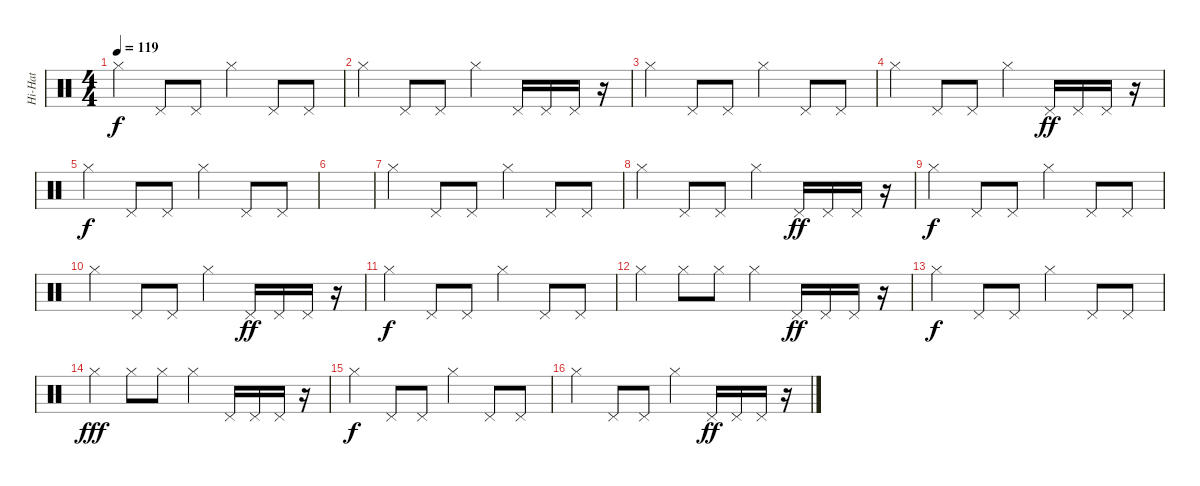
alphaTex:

\track ("Hi-Hat" "Hi-Hat") {instrument percussion}
\staff {score}
\articulation defaults
\ts (4 4)
\tempo 119
\clef neutral
\ks c "Hi-Hat (closed)".4{dy f} "Pedal Hi-Hat (hit)".8 "Pedal Hi-Hat (hit)".8 "Hi-Hat (closed)".4 "Pedal Hi-Hat (hit)".8 "Pedal Hi-Hat (hit)".8
|
"Hi-Hat (closed)".4 "Pedal Hi-Hat (hit)".8 "Pedal Hi-Hat (hit)".8 "Hi-Hat (closed)".4 "Pedal Hi-Hat (hit)".16 "Pedal Hi-Hat (hit)".16 "Pedal Hi-Hat (hit)".16 r.16 |
"Hi-Hat (closed)".4 "Pedal Hi-Hat (hit)".8 "Pedal Hi-Hat (hit)".8 "Hi-Hat (closed)".4 "Pedal Hi-Hat (hit)".8 "Pedal Hi-Hat (hit)".8 |
"Hi-Hat (closed)".4 "Pedal Hi-Hat (hit)".8 "Pedal Hi-Hat (hit)".8 "Hi-Hat (closed)".4 "Pedal Hi-Hat (hit)".16{dy ff} "Pedal Hi-Hat (hit)".16 "Pedal Hi-Hat (hit)".16 r.16 |
"Hi-Hat (closed)".4{dy f} "Pedal Hi-Hat (hit)".8 "Pedal Hi-Hat (hit)".8 "Hi-Hat (closed)".4 "Pedal Hi-Hat (hit)".8 "Pedal Hi-Hat (hit)".8 |
|
"Hi-Hat (closed)".4 "Pedal Hi-Hat (hit)".8 "Pedal Hi-Hat (hit)".8 "Hi-Hat (closed)".4 "Pedal Hi-Hat (hit)".8 "Pedal Hi-Hat (hit)".8 |
"Hi-Hat (closed)".4 "Pedal Hi-Hat (hit)".8 "Pedal Hi-Hat (hit)".8 "Hi-Hat (closed)".4 "Pedal Hi-Hat (hit)".16{dy ff} "Pedal Hi-Hat (hit)".16 "Pedal Hi-Hat (hit)".16 r.16 |
"Hi-Hat (closed)".4{dy f} "Pedal Hi-Hat (hit)".8 "Pedal Hi-Hat (hit)".8 "Hi-Hat (closed)".4 "Pedal Hi-Hat (hit)".8 "Pedal Hi-Hat (hit)".8 |
"Hi-Hat (closed)".4 "Pedal Hi-Hat (hit)".8 "Pedal Hi-Hat (hit)".8 "Hi-Hat (closed)".4 "Pedal Hi-Hat (hit)".16{dy ff} "Pedal Hi-Hat (hit)".16 "Pedal Hi-Hat (hit)".16 r.16 |
"Hi-Hat (closed)".4{dy f} "Pedal Hi-Hat (hit)".8 "Pedal Hi-Hat (hit)".8 "Hi-Hat (closed)".4 "Pedal Hi-Hat (hit)".8 "Pedal Hi-Hat (hit)".8 |
"Hi-Hat (closed)".4 "Hi-Hat (closed)".8 "Hi-Hat (closed)".8 "Hi-Hat (closed)".4 "Pedal Hi-Hat (hit)".16{dy ff} "Pedal Hi-Hat (hit)".16 "Pedal Hi-Hat (hit)".16 r.16 |
"Hi-Hat (closed)".4{dy f} "Pedal Hi-Hat (hit)".8 "Pedal Hi-Hat (hit)".8 "Hi-Hat (closed)".4 "Pedal Hi-Hat (hit)".8 "Pedal Hi-Hat (hit)".8 |
"Hi-Hat (closed)".4{dy fff} "Hi-Hat (closed)".8 "Hi-Hat (closed)".8 "Hi-Hat (closed)".4 "Pedal Hi-Hat (hit)".16 "Pedal Hi-Hat (hit)".16 "Pedal Hi-Hat (hit)".16 r.16 |
"Hi-Hat (closed)".4{dy f} "Pedal Hi-Hat (hit)".8 "Pedal Hi-Hat (hit)".8 "Hi-Hat (closed)".4 "Pedal Hi-Hat (hit)".8 "Pedal Hi-Hat (hit)".8 |
"Hi-Hat (closed)".4 "Pedal Hi-Hat (hit)".8 "Pedal Hi-Hat (hit)".8 "Hi-Hat (closed)".4 "Pedal Hi-Hat (hit)".16{dy ff} "Pedal Hi-Hat (hit)".16 "Pedal Hi-Hat (hit)".16 r.16
